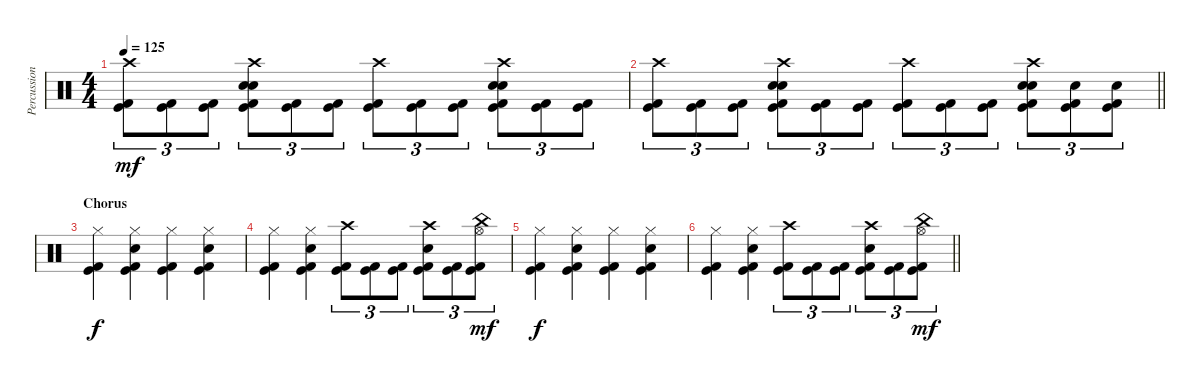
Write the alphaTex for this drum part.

\track ("Percussion" "Percussion") {instrument percussion}
\staff {score}
\articulation defaults
\ts (4 4)
\tempo 125
\clef neutral
\ks c
("Crash high (hit)" "Kick (hit) 2" "Kick (hit)").8{tu (3 2) dy mf} ("Kick (hit) 2" "Kick (hit)").8{tu (3 2)} ("Kick (hit) 2" "Kick (hit)").8{tu (3 2)} ("Electric Snare (hit)" "Crash high (hit)" "Electric Snare (hit)" "Kick (hit) 2" "Kick (hit)").8{tu (3 2)} ("Kick (hit) 2" "Kick (hit)").8{tu (3 2)} ("Kick (hit) 2" "Kick (hit)").8{tu (3 2)} ("Crash high (hit)" "Kick (hit) 2" "Kick (hit)").8{tu (3 2)} ("Kick (hit) 2" "Kick (hit)").8{tu (3 2)} ("Kick (hit) 2" "Kick (hit)").8{tu (3 2)} ("Electric Snare (hit)" "Crash high (hit)" "Electric Snare (hit)" "Kick (hit) 2" "Kick (hit)").8{tu (3 2)} ("Kick (hit) 2" "Kick (hit)").8{tu (3 2)} ("Kick (hit) 2" "Kick (hit)").8{tu (3 2)} |
\barLineRight lightlight
("Crash high (hit)" "Kick (hit) 2" "Kick (hit)").8{tu (3 2)} ("Kick (hit) 2" "Kick (hit)").8{tu (3 2)} ("Kick (hit) 2" "Kick (hit)").8{tu (3 2)} ("Electric Snare (hit)" "Crash high (hit)" "Electric Snare (hit)" "Kick (hit) 2" "Kick (hit)").8{tu (3 2)} ("Kick (hit) 2" "Kick (hit)").8{tu (3 2)} ("Kick (hit) 2" "Kick (hit)").8{tu (3 2)} ("Crash high (hit)" "Kick (hit) 2" "Kick (hit)").8{tu (3 2)} ("Kick (hit) 2" "Kick (hit)").8{tu (3 2)} ("Kick (hit) 2" "Kick (hit)").8{tu (3 2)} ("Electric Snare (hit)" "Crash high (hit)" "Electric Snare (hit)" "Kick (hit) 2" "Kick (hit)").8{tu (3 2)} ("Electric Snare (hit)" "Kick (hit) 2" "Kick (hit)").8{tu (3 2)} ("Electric Snare (hit)" "Kick (hit) 2" "Kick (hit)").8{tu (3 2)} |
\section ("" "Chorus")
("Hi-Hat (closed)" "Kick (hit) 2" "Kick (hit)").4{dy f} ("Hi-Hat (closed)" "Electric Snare (hit)" "Kick (hit) 2" "Kick (hit)").4 ("Hi-Hat (closed)" "Kick (hit) 2" "Kick (hit)").4 ("Hi-Hat (closed)" "Electric Snare (hit)" "Kick (hit) 2" "Kick (hit)").4 |
("Hi-Hat (closed)" "Kick (hit) 2" "Kick (hit)").4 ("Hi-Hat (closed)" "Electric Snare (hit)" "Kick (hit) 2" "Kick (hit)").4 ("Crash high (hit)" "Kick (hit) 2" "Kick (hit)").8{tu (3 2)} ("Kick (hit) 2" "Kick (hit)").8{tu (3 2)} ("Kick (hit) 2" "Kick (hit)").8{tu (3 2)} ("Crash high (hit)" "Electric Snare (hit)" "Kick (hit) 2" "Kick (hit)").8{tu (3 2)} ("Kick (hit) 2" "Kick (hit)").8{tu (3 2)} ("China (hit)" "Hi-Hat (open)" "Kick (hit) 2" "Kick (hit)").8{tu (3 2) dy mf} |
("Hi-Hat (closed)" "Kick (hit) 2" "Kick (hit)").4{dy f} ("Hi-Hat (closed)" "Electric Snare (hit)" "Kick (hit) 2" "Kick (hit)").4 ("Hi-Hat (closed)" "Kick (hit) 2" "Kick (hit)").4 ("Hi-Hat (closed)" "Electric Snare (hit)" "Kick (hit) 2" "Kick (hit)").4 |
\barLineRight lightlight
("Hi-Hat (closed)" "Kick (hit) 2" "Kick (hit)").4 ("Hi-Hat (closed)" "Electric Snare (hit)" "Kick (hit) 2" "Kick (hit)").4 ("Crash high (hit)" "Kick (hit) 2" "Kick (hit)").8{tu (3 2)} ("Kick (hit) 2" "Kick (hit)").8{tu (3 2)} ("Kick (hit) 2" "Kick (hit)").8{tu (3 2)} ("Crash high (hit)" "Electric Snare (hit)" "Kick (hit) 2" "Kick (hit)").8{tu (3 2)} ("Kick (hit) 2" "Kick (hit)").8{tu (3 2)} ("China (hit)" "Hi-Hat (open)" "Kick (hit) 2" "Kick (hit)").8{tu (3 2) dy mf}
